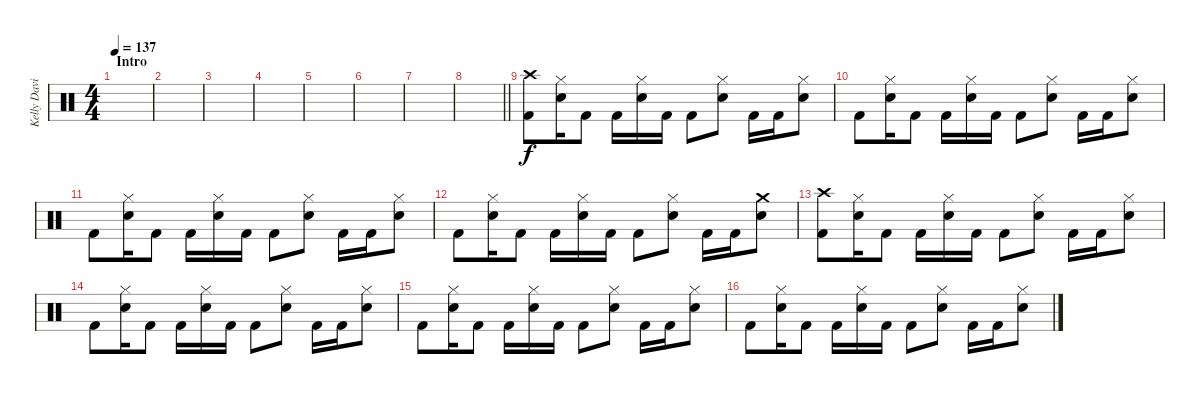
\track ("Kelly David Smith" "Kelly Davi") {instrument percussion}
\staff {score}
\articulation defaults
\ts (4 4)
\section ("" "Intro")
\tempo 137
\clef neutral
\ks c
|
|
|
|
|
|
|
\barLineRight lightlight
|
("Crash high (hit)" "Kick (hit) 2").8 ("Hi-Hat (closed)" "Snare (hit) 2").16 "Kick (hit) 2".8 "Kick (hit) 2".16 ("Hi-Hat (closed)" "Snare (hit) 2").16 "Kick (hit) 2".16 "Kick (hit) 2".8 ("Hi-Hat (closed)" "Snare (hit) 2").8 "Kick (hit) 2".16 "Kick (hit) 2".16 ("Hi-Hat (closed)" "Snare (hit) 2").8 |
"Kick (hit) 2".8 ("Hi-Hat (closed)" "Snare (hit) 2").16 "Kick (hit) 2".8 "Kick (hit) 2".16 ("Hi-Hat (closed)" "Snare (hit) 2").16 "Kick (hit) 2".16 "Kick (hit) 2".8 ("Hi-Hat (closed)" "Snare (hit) 2").8 "Kick (hit) 2".16 "Kick (hit) 2".16 ("Hi-Hat (closed)" "Snare (hit) 2").8 |
"Kick (hit) 2".8 ("Hi-Hat (closed)" "Snare (hit) 2").16 "Kick (hit) 2".8 "Kick (hit) 2".16 ("Hi-Hat (closed)" "Snare (hit) 2").16 "Kick (hit) 2".16 "Kick (hit) 2".8 ("Hi-Hat (closed)" "Snare (hit) 2").8 "Kick (hit) 2".16 "Kick (hit) 2".16 ("Hi-Hat (closed)" "Snare (hit) 2").8 |
"Kick (hit) 2".8 ("Hi-Hat (closed)" "Snare (hit) 2").16 "Kick (hit) 2".8 "Kick (hit) 2".16 ("Hi-Hat (closed)" "Snare (hit) 2").16 "Kick (hit) 2".16 "Kick (hit) 2".8 ("Hi-Hat (closed)" "Snare (hit) 2").8 "Kick (hit) 2".16 "Kick (hit) 2".16 ("Crash medium (hit)" "Snare (hit) 2").8 |
("Crash high (hit)" "Kick (hit) 2").8 ("Hi-Hat (closed)" "Snare (hit) 2").16 "Kick (hit) 2".8 "Kick (hit) 2".16 ("Hi-Hat (closed)" "Snare (hit) 2").16 "Kick (hit) 2".16 "Kick (hit) 2".8 ("Hi-Hat (closed)" "Snare (hit) 2").8 "Kick (hit) 2".16 "Kick (hit) 2".16 ("Hi-Hat (closed)" "Snare (hit) 2").8 |
"Kick (hit) 2".8 ("Hi-Hat (closed)" "Snare (hit) 2").16 "Kick (hit) 2".8 "Kick (hit) 2".16 ("Hi-Hat (closed)" "Snare (hit) 2").16 "Kick (hit) 2".16 "Kick (hit) 2".8 ("Hi-Hat (closed)" "Snare (hit) 2").8 "Kick (hit) 2".16 "Kick (hit) 2".16 ("Hi-Hat (closed)" "Snare (hit) 2").8 |
"Kick (hit) 2".8 ("Hi-Hat (closed)" "Snare (hit) 2").16 "Kick (hit) 2".8 "Kick (hit) 2".16 ("Hi-Hat (closed)" "Snare (hit) 2").16 "Kick (hit) 2".16 "Kick (hit) 2".8 ("Hi-Hat (closed)" "Snare (hit) 2").8 "Kick (hit) 2".16 "Kick (hit) 2".16 ("Hi-Hat (closed)" "Snare (hit) 2").8 |
"Kick (hit) 2".8 ("Hi-Hat (closed)" "Snare (hit) 2").16 "Kick (hit) 2".8 "Kick (hit) 2".16 ("Hi-Hat (closed)" "Snare (hit) 2").16 "Kick (hit) 2".16 "Kick (hit) 2".8 ("Hi-Hat (closed)" "Snare (hit) 2").8 "Kick (hit) 2".16 "Kick (hit) 2".16 ("Hi-Hat (closed)" "Snare (hit) 2").8
